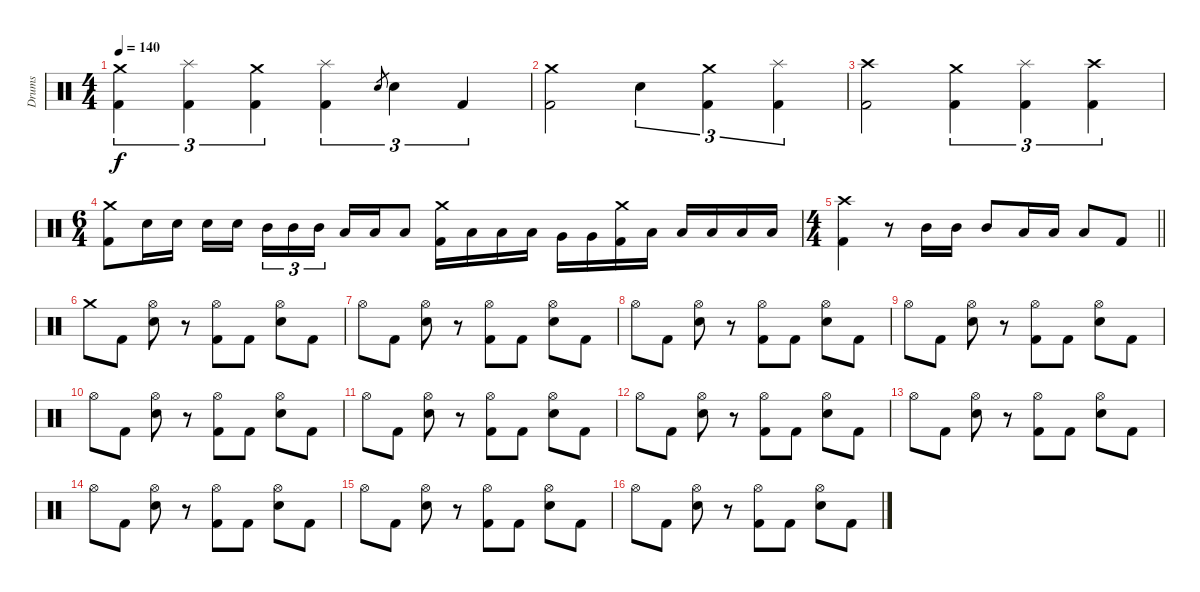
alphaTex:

\track ("Drums" "Drums") {instrument percussion}
\staff {score}
\articulation defaults
\ts (4 4)
\tempo 140
\clef neutral
\ks c
("Crash medium (hit)" "Kick (hit) 2").4{tu (3 2) dy f} ("Splash (hit)" "Kick (hit) 2").4{tu (3 2)} ("Crash medium (hit)" "Kick (hit) 2").4{tu (3 2)} ("Splash (hit)" "Kick (hit) 2").4{tu (3 2)} "Electric Snare (hit)".8{gr} "Electric Snare (hit)".4{tu (3 2)} "Kick (hit) 2".4{tu (3 2)} |
("Crash medium (hit)" "Kick (hit) 2").2 "Electric Snare (hit)".4{tu (3 2)} ("Crash medium (hit)" "Kick (hit) 2").4{tu (3 2)} ("Splash (hit)" "Kick (hit) 2").4{tu (3 2)} |
("Crash high (hit)" "Kick (hit) 2").2 ("Crash medium (hit)" "Kick (hit) 2").4{tu (3 2)} ("Splash (hit)" "Kick (hit) 2").4{tu (3 2)} ("Crash high (hit)" "Kick (hit) 2").4{tu (3 2)} |
\ts (6 4)
("Crash medium (hit)" "Kick (hit) 2").8 "Electric Snare (hit)".16 "Electric Snare (hit)".16 "Electric Snare (hit)".16 "Electric Snare (hit)".16{beam splitsecondary} "Mid Tom (hit)".16{tu (3 2)} "Mid Tom (hit)".16{tu (3 2)} "Mid Tom (hit)".16{tu (3 2) beam splitsecondary} "Low Tom (hit)".16 "Low Tom (hit)".16 "Low Tom (hit)".8 ("Crash medium (hit)" "Kick (hit) 2").16 "Low Tom (hit)".16 "Low Tom (hit)".16 "Low Tom (hit)".16 "Very Low Tom (hit)".16 "Very Low Tom (hit)".16 ("Crash medium (hit)" "Kick (hit) 2").16 "Low Floor Tom (hit)".16 "Low Floor Tom (hit)".16 "Low Floor Tom (hit)".16 "Low Floor Tom (hit)".16 "Low Floor Tom (hit)".16 |
\ts (4 4)
\barLineRight lightlight
("Crash high (hit)" "Kick (hit) 2").4 r.8 "Mid Tom (hit)".16 "Mid Tom (hit)".16 "Mid Tom (hit)".8 "Low Tom (hit)".16 "Low Tom (hit)".16 "Low Tom (hit)".8 "Kick (hit) 2".8 |
"Crash medium (hit)".8 "Kick (hit) 2".8 ("Hi-Hat (open)" "Electric Snare (hit)").8 r.8 ("Hi-Hat (open)" "Kick (hit) 2").8 "Kick (hit) 2".8 ("Hi-Hat (open)" "Electric Snare (hit)").8 "Kick (hit) 2".8 |
"Hi-Hat (open)".8 "Kick (hit) 2".8 ("Hi-Hat (open)" "Electric Snare (hit)").8 r.8 ("Hi-Hat (open)" "Kick (hit) 2").8 "Kick (hit) 2".8 ("Hi-Hat (open)" "Electric Snare (hit)").8 "Kick (hit) 2".8 |
"Hi-Hat (open)".8 "Kick (hit) 2".8 ("Hi-Hat (open)" "Electric Snare (hit)").8 r.8 ("Hi-Hat (open)" "Kick (hit) 2").8 "Kick (hit) 2".8 ("Hi-Hat (open)" "Electric Snare (hit)").8 "Kick (hit) 2".8 |
"Hi-Hat (open)".8 "Kick (hit) 2".8 ("Hi-Hat (open)" "Electric Snare (hit)").8 r.8 ("Hi-Hat (open)" "Kick (hit) 2").8 "Kick (hit) 2".8 ("Hi-Hat (open)" "Electric Snare (hit)").8 "Kick (hit) 2".8 |
"Hi-Hat (open)".8 "Kick (hit) 2".8 ("Hi-Hat (open)" "Electric Snare (hit)").8 r.8 ("Hi-Hat (open)" "Kick (hit) 2").8 "Kick (hit) 2".8 ("Hi-Hat (open)" "Electric Snare (hit)").8 "Kick (hit) 2".8 |
"Hi-Hat (open)".8 "Kick (hit) 2".8 ("Hi-Hat (open)" "Electric Snare (hit)").8 r.8 ("Hi-Hat (open)" "Kick (hit) 2").8 "Kick (hit) 2".8 ("Hi-Hat (open)" "Electric Snare (hit)").8 "Kick (hit) 2".8 |
"Hi-Hat (open)".8 "Kick (hit) 2".8 ("Hi-Hat (open)" "Electric Snare (hit)").8 r.8 ("Hi-Hat (open)" "Kick (hit) 2").8 "Kick (hit) 2".8 ("Hi-Hat (open)" "Electric Snare (hit)").8 "Kick (hit) 2".8 |
"Hi-Hat (open)".8 "Kick (hit) 2".8 ("Hi-Hat (open)" "Electric Snare (hit)").8 r.8 ("Hi-Hat (open)" "Kick (hit) 2").8 "Kick (hit) 2".8 ("Hi-Hat (open)" "Electric Snare (hit)").8 "Kick (hit) 2".8 |
"Hi-Hat (open)".8 "Kick (hit) 2".8 ("Hi-Hat (open)" "Electric Snare (hit)").8 r.8 ("Hi-Hat (open)" "Kick (hit) 2").8 "Kick (hit) 2".8 ("Hi-Hat (open)" "Electric Snare (hit)").8 "Kick (hit) 2".8 |
"Hi-Hat (open)".8 "Kick (hit) 2".8 ("Hi-Hat (open)" "Electric Snare (hit)").8 r.8 ("Hi-Hat (open)" "Kick (hit) 2").8 "Kick (hit) 2".8 ("Hi-Hat (open)" "Electric Snare (hit)").8 "Kick (hit) 2".8 |
"Hi-Hat (open)".8 "Kick (hit) 2".8 ("Hi-Hat (open)" "Electric Snare (hit)").8 r.8 ("Hi-Hat (open)" "Kick (hit) 2").8 "Kick (hit) 2".8 ("Hi-Hat (open)" "Electric Snare (hit)").8 "Kick (hit) 2".8
